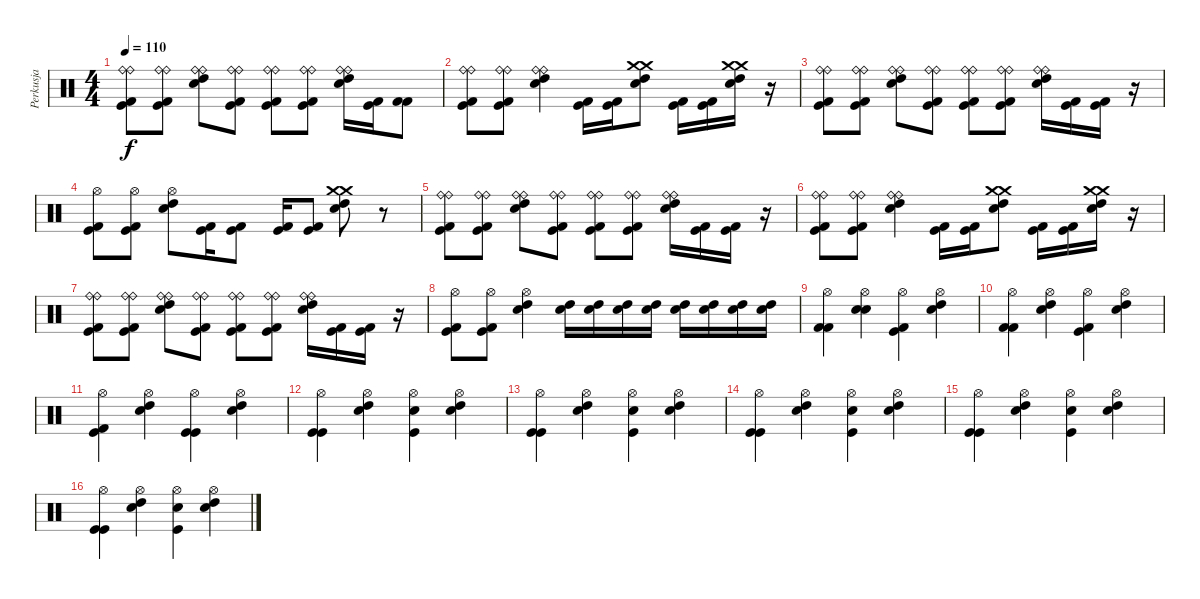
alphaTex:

\track ("Perkusja" "Perkusja") {instrument percussion}
\staff {score}
\articulation defaults
\ts (4 4)
\tempo 110
\clef neutral
\ks c
("Ride (bell)" "Kick (hit) 2" "Kick (hit)" "Ride (bell)").8{dy f} ("Ride (bell)" "Kick (hit) 2" "Kick (hit)" "Ride (bell)").8 ("Ride (bell)" "High Tom (hit)" "Snare (hit) 2" "Ride (bell)").8 ("Ride (bell)" "Kick (hit)" "Kick (hit) 2" "Ride (bell)").8 ("Ride (bell)" "Kick (hit)" "Kick (hit) 2" "Ride (bell)").8 ("Ride (bell)" "Kick (hit)" "Kick (hit) 2" "Ride (bell)").8 ("Ride (bell)" "High Tom (hit)" "Snare (hit) 2" "Ride (bell)").16 ("Kick (hit) 2" "Kick (hit)").16 ("Kick (hit) 2" "Kick (hit) 2").8 |
("Ride (bell)" "Kick (hit) 2" "Kick (hit)" "Ride (bell)").8 ("Ride (bell)" "Kick (hit) 2" "Kick (hit)" "Ride (bell)").8 ("Ride (bell)" "High Tom (hit)" "Snare (hit) 2" "Ride (bell)").4 ("Kick (hit) 2" "Kick (hit)").16 ("Kick (hit) 2" "Kick (hit)").16 ("Crash medium (hit)" "High Tom (hit)" "Snare (hit) 2" "Crash medium (hit)").8 ("Kick (hit) 2" "Kick (hit)").16 ("Kick (hit) 2" "Kick (hit)").16 ("Crash medium (hit)" "High Tom (hit)" "Snare (hit) 2" "Crash medium (hit)").16 r.16 |
("Ride (bell)" "Kick (hit) 2" "Kick (hit)" "Ride (bell)").8 ("Ride (bell)" "Kick (hit) 2" "Kick (hit)" "Ride (bell)").8 ("Ride (bell)" "High Tom (hit)" "Snare (hit) 2" "Ride (bell)").8 ("Ride (bell)" "Kick (hit)" "Kick (hit) 2" "Ride (bell)").8 ("Ride (bell)" "Kick (hit)" "Kick (hit) 2" "Ride (bell)").8 ("Ride (bell)" "Kick (hit)" "Kick (hit) 2" "Ride (bell)").8 ("Ride (bell)" "High Tom (hit)" "Snare (hit) 2" "Ride (bell)").16 ("Kick (hit) 2" "Kick (hit)").16 ("Kick (hit) 2" "Kick (hit)").16 r.16 |
("Hi-Hat (open)" "Kick (hit) 2" "Kick (hit)").8 ("Hi-Hat (open)" "Kick (hit) 2" "Kick (hit)").8 ("Hi-Hat (open)" "High Tom (hit)" "Snare (hit) 2").8 ("Kick (hit) 2" "Kick (hit)").16 ("Kick (hit) 2" "Kick (hit)").8 ("Kick (hit) 2" "Kick (hit)").16 ("Kick (hit) 2" "Kick (hit)").8 ("Crash medium (hit)" "Crash medium (hit)" "High Tom (hit)" "Snare (hit) 2").8 r.8 |
("Ride (bell)" "Kick (hit) 2" "Kick (hit)" "Ride (bell)").8 ("Ride (bell)" "Kick (hit) 2" "Kick (hit)" "Ride (bell)").8 ("Ride (bell)" "High Tom (hit)" "Snare (hit) 2" "Ride (bell)").8 ("Ride (bell)" "Kick (hit)" "Kick (hit) 2" "Ride (bell)").8 ("Ride (bell)" "Kick (hit)" "Kick (hit) 2" "Ride (bell)").8 ("Ride (bell)" "Kick (hit)" "Kick (hit) 2" "Ride (bell)").8 ("Ride (bell)" "High Tom (hit)" "Snare (hit) 2" "Ride (bell)").16 ("Kick (hit) 2" "Kick (hit)").16 ("Kick (hit) 2" "Kick (hit)").16 r.16 |
("Ride (bell)" "Kick (hit) 2" "Kick (hit)" "Ride (bell)").8 ("Ride (bell)" "Kick (hit) 2" "Kick (hit)" "Ride (bell)").8 ("Ride (bell)" "High Tom (hit)" "Snare (hit) 2" "Ride (bell)").4 ("Kick (hit) 2" "Kick (hit)").16 ("Kick (hit) 2" "Kick (hit)").16 ("Crash medium (hit)" "High Tom (hit)" "Snare (hit) 2" "Crash medium (hit)").8 ("Kick (hit) 2" "Kick (hit)").16 ("Kick (hit) 2" "Kick (hit)").16 ("Crash medium (hit)" "High Tom (hit)" "Snare (hit) 2" "Crash medium (hit)").16 r.16 |
("Ride (bell)" "Kick (hit) 2" "Kick (hit)" "Ride (bell)").8 ("Ride (bell)" "Kick (hit) 2" "Kick (hit)" "Ride (bell)").8 ("Ride (bell)" "High Tom (hit)" "Snare (hit) 2" "Ride (bell)").8 ("Ride (bell)" "Kick (hit)" "Kick (hit) 2" "Ride (bell)").8 ("Ride (bell)" "Kick (hit)" "Kick (hit) 2" "Ride (bell)").8 ("Ride (bell)" "Kick (hit)" "Kick (hit) 2" "Ride (bell)").8 ("Ride (bell)" "High Tom (hit)" "Snare (hit) 2" "Ride (bell)").16 ("Kick (hit) 2" "Kick (hit)").16 ("Kick (hit) 2" "Kick (hit)").16 r.16 |
("Hi-Hat (open)" "Kick (hit) 2" "Kick (hit)").8 ("Hi-Hat (open)" "Kick (hit) 2" "Kick (hit)").8 ("Hi-Hat (open)" "High Tom (hit)" "Snare (hit) 2").4 ("Snare (hit) 2" "High Tom (hit)").16{volume 6} ("Snare (hit) 2" "High Tom (hit)").16{volume 6} ("Snare (hit) 2" "High Tom (hit)").16{volume 7} ("Snare (hit) 2" "High Tom (hit)").16{volume 8} ("Snare (hit) 2" "High Tom (hit)").16{volume 9} ("Snare (hit) 2" "High Tom (hit)").16{volume 9} ("Snare (hit) 2" "High Tom (hit)").16{volume 11} ("Snare (hit) 2" "High Tom (hit)").16 |
("Hi-Hat (open)" "Kick (hit) 2" "Kick (hit) 2").4 ("Hi-Hat (open)" "Snare (hit) 2" "Snare (hit) 2").4 ("Hi-Hat (open)" "Kick (hit)" "Kick (hit) 2").4 ("Hi-Hat (open)" "Snare (hit) 2" "High Tom (hit)").4 |
("Hi-Hat (open)" "Kick (hit) 2" "Kick (hit) 2").4 ("Hi-Hat (open)" "Snare (hit) 2" "High Tom (hit)").4 ("Hi-Hat (open)" "Kick (hit) 2" "Kick (hit)").4 ("Hi-Hat (open)" "Snare (hit) 2" "High Tom (hit)").4 |
("Hi-Hat (open)" "Kick (hit) 2" "Kick (hit)").4 ("Hi-Hat (open)" "Snare (hit) 2" "High Tom (hit)").4 ("Hi-Hat (open)" "Kick (hit)" "Kick (hit)").4 ("Hi-Hat (open)" "Snare (hit) 2" "High Tom (hit)").4 |
("Hi-Hat (open)" "Kick (hit)" "Kick (hit)").4 ("Hi-Hat (open)" "Snare (hit) 2" "High Tom (hit)").4 ("Hi-Hat (open)" "Snare (hit) 2" "Kick (hit)").4 ("Hi-Hat (open)" "Snare (hit) 2" "High Tom (hit)").4 |
("Hi-Hat (open)" "Kick (hit)" "Kick (hit)").4 ("Hi-Hat (open)" "Snare (hit) 2" "High Tom (hit)").4 ("Hi-Hat (open)" "Snare (hit) 2" "Kick (hit)").4 ("Hi-Hat (open)" "Snare (hit) 2" "High Tom (hit)").4 |
("Hi-Hat (open)" "Kick (hit)" "Kick (hit)").4 ("Hi-Hat (open)" "Snare (hit) 2" "High Tom (hit)").4 ("Hi-Hat (open)" "Snare (hit) 2" "Kick (hit)").4 ("Hi-Hat (open)" "Snare (hit) 2" "High Tom (hit)").4 |
("Hi-Hat (open)" "Kick (hit)" "Kick (hit)").4 ("Hi-Hat (open)" "Snare (hit) 2" "High Tom (hit)").4 ("Hi-Hat (open)" "Snare (hit) 2" "Kick (hit)").4 ("Hi-Hat (open)" "Snare (hit) 2" "High Tom (hit)").4 |
("Hi-Hat (open)" "Kick (hit)" "Kick (hit)").4 ("Hi-Hat (open)" "Snare (hit) 2" "High Tom (hit)").4 ("Hi-Hat (open)" "Snare (hit) 2" "Kick (hit)").4 ("Hi-Hat (open)" "Snare (hit) 2" "High Tom (hit)").4
